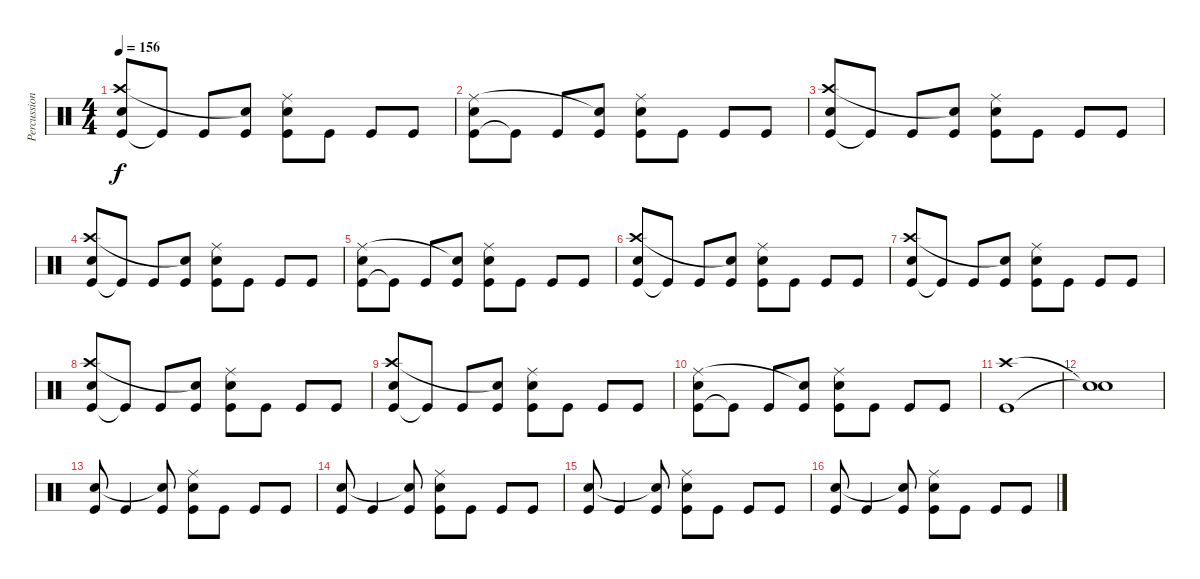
\track ("Percussion" "Percussion") {instrument percussion}
\staff {score}
\articulation defaults
\ts (4 4)
\tempo 156
\clef neutral
\ks c
("Kick (hit)" "Crash high (hit)" "Electric Snare (hit)").8{dy f} "Kick (hit)"{t}.8 "Kick (hit)".8 ("Kick (hit)" "Snare (hit)"{t}).8 ("Kick (hit)" "Ride (middle)" "Electric Snare (hit)").8 "Kick (hit)".8 "Kick (hit)".8 "Kick (hit)".8 |
("Kick (hit)" "Ride (middle)" "Electric Snare (hit)").8 "Kick (hit)"{t}.8 "Kick (hit)".8 ("Kick (hit)" "Snare (hit)"{t}).8 ("Kick (hit)" "Ride (middle)" "Electric Snare (hit)").8 "Kick (hit)".8 "Kick (hit)".8 "Kick (hit)".8 |
("Kick (hit)" "Crash high (hit)" "Electric Snare (hit)").8 "Kick (hit)"{t}.8 "Kick (hit)".8 ("Kick (hit)" "Snare (hit)"{t}).8 ("Kick (hit)" "Ride (middle)" "Electric Snare (hit)").8 "Kick (hit)".8 "Kick (hit)".8 "Kick (hit)".8 |
("Kick (hit)" "Crash high (hit)" "Electric Snare (hit)").8 "Kick (hit)"{t}.8 "Kick (hit)".8 ("Kick (hit)" "Snare (hit)"{t}).8 ("Kick (hit)" "Ride (middle)" "Electric Snare (hit)").8 "Kick (hit)".8 "Kick (hit)".8 "Kick (hit)".8 |
("Kick (hit)" "Ride (middle)" "Electric Snare (hit)").8 "Kick (hit)"{t}.8 "Kick (hit)".8 ("Kick (hit)" "Snare (hit)"{t}).8 ("Kick (hit)" "Ride (middle)" "Electric Snare (hit)").8 "Kick (hit)".8 "Kick (hit)".8 "Kick (hit)".8 |
("Kick (hit)" "Crash high (hit)" "Electric Snare (hit)").8 "Kick (hit)"{t}.8 "Kick (hit)".8 ("Kick (hit)" "Snare (hit)"{t}).8 ("Kick (hit)" "Ride (middle)" "Electric Snare (hit)").8 "Kick (hit)".8 "Kick (hit)".8 "Kick (hit)".8 |
("Kick (hit)" "Crash high (hit)" "Electric Snare (hit)").8 "Kick (hit)"{t}.8 "Kick (hit)".8 ("Kick (hit)" "Snare (hit)"{t}).8 ("Kick (hit)" "Ride (middle)" "Electric Snare (hit)").8 "Kick (hit)".8 "Kick (hit)".8 "Kick (hit)".8 |
("Kick (hit)" "Crash high (hit)" "Electric Snare (hit)").8 "Kick (hit)"{t}.8 "Kick (hit)".8 ("Kick (hit)" "Snare (hit)"{t}).8 ("Kick (hit)" "Ride (middle)" "Electric Snare (hit)").8 "Kick (hit)".8 "Kick (hit)".8 "Kick (hit)".8 |
("Kick (hit)" "Crash high (hit)" "Electric Snare (hit)").8 "Kick (hit)"{t}.8 "Kick (hit)".8 ("Kick (hit)" "Snare (hit)"{t}).8 ("Kick (hit)" "Ride (middle)" "Electric Snare (hit)").8 "Kick (hit)".8 "Kick (hit)".8 "Kick (hit)".8 |
("Kick (hit)" "Ride (middle)" "Electric Snare (hit)").8 "Kick (hit)"{t}.8 "Kick (hit)".8 ("Kick (hit)" "Snare (hit)"{t}).8 ("Kick (hit)" "Ride (middle)" "Electric Snare (hit)").8 "Kick (hit)".8 "Kick (hit)".8 "Kick (hit)".8 |
("Kick (hit)" "Crash high (hit)").1 |
("Snare (hit)"{t} "Snare (hit)"{t}).1 |
("Kick (hit)" "Electric Snare (hit)").8 "Kick (hit)".4 ("Kick (hit)" "Snare (hit)"{t}).8 ("Kick (hit)" "Ride (middle)" "Electric Snare (hit)").8 "Kick (hit)".8 "Kick (hit)".8 "Kick (hit)".8 |
("Kick (hit)" "Electric Snare (hit)").8 "Kick (hit)".4 ("Kick (hit)" "Snare (hit)"{t}).8 ("Kick (hit)" "Ride (middle)" "Electric Snare (hit)").8 "Kick (hit)".8 "Kick (hit)".8 "Kick (hit)".8 |
("Kick (hit)" "Electric Snare (hit)").8 "Kick (hit)".4 ("Kick (hit)" "Snare (hit)"{t}).8 ("Kick (hit)" "Ride (middle)" "Electric Snare (hit)").8 "Kick (hit)".8 "Kick (hit)".8 "Kick (hit)".8 |
("Kick (hit)" "Electric Snare (hit)").8 "Kick (hit)".4 ("Kick (hit)" "Snare (hit)"{t}).8 ("Kick (hit)" "Ride (middle)" "Electric Snare (hit)").8 "Kick (hit)".8 "Kick (hit)".8 "Kick (hit)".8
